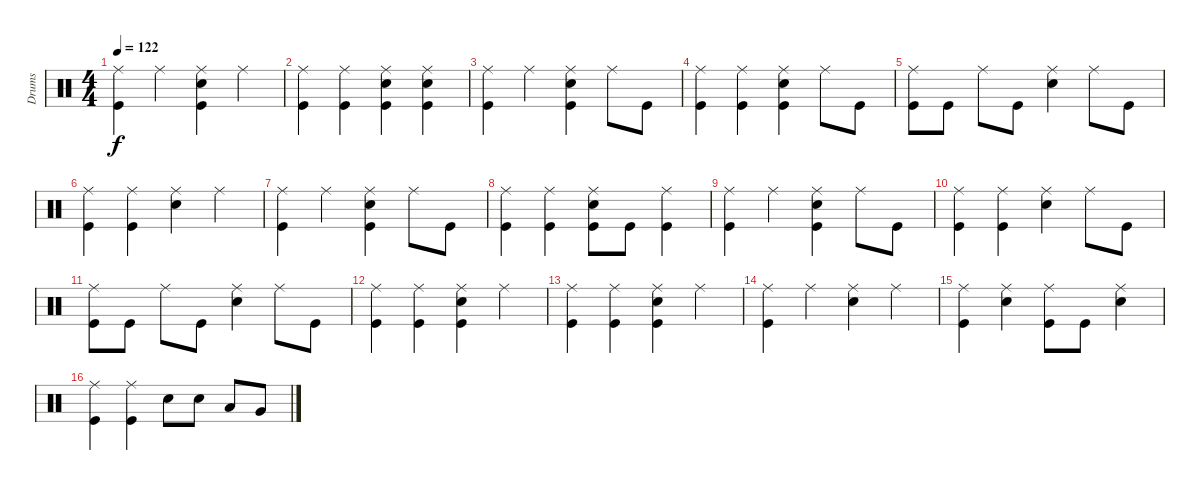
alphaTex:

\track ("Drums" "Drums") {instrument percussion}
\staff {score}
\articulation defaults
\ts (4 4)
\tempo 122
\clef neutral
\ks c
("Ride (middle)" "Kick (hit)").4{dy f} "Ride (middle)".4 ("Ride (middle)" "Snare (hit) 2" "Kick (hit)").4 "Ride (middle)".4 |
("Kick (hit)" "Ride (middle)").4 ("Kick (hit)" "Ride (middle)").4 ("Snare (hit) 2" "Kick (hit)" "Ride (middle)").4 ("Snare (hit) 2" "Kick (hit)" "Ride (middle)").4 |
("Ride (middle)" "Kick (hit)").4 "Ride (middle)".4 ("Snare (hit) 2" "Kick (hit)" "Ride (middle)").4 "Ride (middle)".8 "Kick (hit)".8 |
("Ride (middle)" "Kick (hit)").4 ("Ride (middle)" "Kick (hit)").4 ("Ride (middle)" "Snare (hit) 2" "Kick (hit)").4 "Ride (middle)".8 "Kick (hit)".8 |
("Ride (middle)" "Kick (hit)").8 "Kick (hit)".8 "Ride (middle)".8 "Kick (hit)".8 ("Ride (middle)" "Snare (hit) 2").4 "Ride (middle)".8 "Kick (hit)".8 |
("Kick (hit)" "Ride (middle)").4 ("Kick (hit)" "Ride (middle)").4 ("Snare (hit) 2" "Ride (middle)").4 "Ride (middle)".4 |
("Ride (middle)" "Kick (hit)").4 "Ride (middle)".4 ("Ride (middle)" "Snare (hit) 2" "Kick (hit)").4 "Ride (middle)".8 "Kick (hit)".8 |
("Kick (hit)" "Ride (middle)").4 ("Kick (hit)" "Ride (middle)").4 ("Snare (hit) 2" "Kick (hit)" "Ride (middle)").8 "Kick (hit)".8 ("Kick (hit)" "Ride (middle)").4 |
("Kick (hit)" "Ride (middle)").4 "Ride (middle)".4 ("Snare (hit) 2" "Kick (hit)" "Ride (middle)").4 "Ride (middle)".8 "Kick (hit)".8 |
("Ride (middle)" "Kick (hit)").4 ("Ride (middle)" "Kick (hit)").4 ("Ride (middle)" "Snare (hit) 2").4 "Ride (middle)".8 "Kick (hit)".8 |
("Ride (middle)" "Kick (hit)").8 "Kick (hit)".8 "Ride (middle)".8 "Kick (hit)".8 ("Ride (middle)" "Snare (hit) 2").4 "Ride (middle)".8 "Kick (hit)".8 |
("Kick (hit)" "Ride (middle)").4 ("Kick (hit)" "Ride (middle)").4 ("Snare (hit) 2" "Kick (hit)" "Ride (middle)").4 "Ride (middle)".4 |
("Ride (middle)" "Kick (hit)").4 ("Ride (middle)" "Kick (hit)").4 ("Ride (middle)" "Snare (hit) 2" "Kick (hit)").4 "Ride (middle)".4 |
("Kick (hit)" "Ride (middle)").4 "Ride (middle)".4 ("Snare (hit) 2" "Ride (middle)").4 "Ride (middle)".4 |
("Kick (hit)" "Ride (middle)").4 ("Snare (hit) 2" "Ride (middle)").4 ("Kick (hit)" "Ride (middle)").8 "Kick (hit)".8 ("Snare (hit) 2" "Ride (middle)").4 |
("Kick (hit)" "Ride (middle)").4 ("Kick (hit)" "Ride (middle)").4 "Snare (hit) 2".8 "Snare (hit) 2".8 "Low Tom (hit)".8 "Very Low Tom (hit)".8
